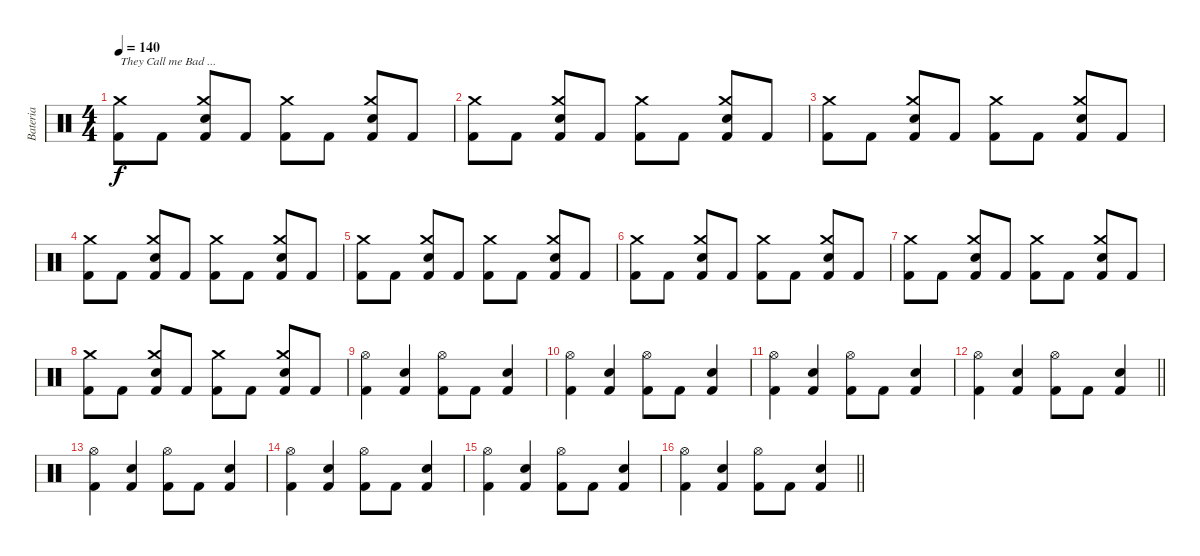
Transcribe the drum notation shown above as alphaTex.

\track ("Bateria" "Bateria") {instrument percussion}
\staff {score}
\articulation defaults
\ts (4 4)
\tempo 140
\clef neutral
\ks c
("Kick (hit) 2" "Crash medium (hit)").8{txt "They Call me Bad ..." dy f} "Kick (hit) 2".8 ("Kick (hit) 2" "Crash medium (hit)" "Electric Snare (hit)").8 "Kick (hit) 2".8 ("Kick (hit) 2" "Crash medium (hit)").8 "Kick (hit) 2".8 ("Kick (hit) 2" "Crash medium (hit)" "Electric Snare (hit)").8 "Kick (hit) 2".8 |
("Kick (hit) 2" "Crash medium (hit)").8 "Kick (hit) 2".8 ("Kick (hit) 2" "Crash medium (hit)" "Electric Snare (hit)").8 "Kick (hit) 2".8 ("Kick (hit) 2" "Crash medium (hit)").8 "Kick (hit) 2".8 ("Kick (hit) 2" "Crash medium (hit)" "Electric Snare (hit)").8 "Kick (hit) 2".8 |
("Kick (hit) 2" "Crash medium (hit)").8 "Kick (hit) 2".8 ("Kick (hit) 2" "Crash medium (hit)" "Electric Snare (hit)").8 "Kick (hit) 2".8 ("Kick (hit) 2" "Crash medium (hit)").8 "Kick (hit) 2".8 ("Kick (hit) 2" "Crash medium (hit)" "Electric Snare (hit)").8 "Kick (hit) 2".8 |
("Kick (hit) 2" "Crash medium (hit)").8 "Kick (hit) 2".8 ("Kick (hit) 2" "Crash medium (hit)" "Electric Snare (hit)").8 "Kick (hit) 2".8 ("Kick (hit) 2" "Crash medium (hit)").8 "Kick (hit) 2".8 ("Kick (hit) 2" "Crash medium (hit)" "Electric Snare (hit)").8 "Kick (hit) 2".8 |
("Kick (hit) 2" "Crash medium (hit)").8 "Kick (hit) 2".8 ("Kick (hit) 2" "Crash medium (hit)" "Electric Snare (hit)").8 "Kick (hit) 2".8 ("Kick (hit) 2" "Crash medium (hit)").8 "Kick (hit) 2".8 ("Kick (hit) 2" "Crash medium (hit)" "Electric Snare (hit)").8 "Kick (hit) 2".8 |
("Kick (hit) 2" "Crash medium (hit)").8 "Kick (hit) 2".8 ("Kick (hit) 2" "Crash medium (hit)" "Electric Snare (hit)").8 "Kick (hit) 2".8 ("Kick (hit) 2" "Crash medium (hit)").8 "Kick (hit) 2".8 ("Kick (hit) 2" "Crash medium (hit)" "Electric Snare (hit)").8 "Kick (hit) 2".8 |
("Kick (hit) 2" "Crash medium (hit)").8 "Kick (hit) 2".8 ("Kick (hit) 2" "Crash medium (hit)" "Electric Snare (hit)").8 "Kick (hit) 2".8 ("Kick (hit) 2" "Crash medium (hit)").8 "Kick (hit) 2".8 ("Kick (hit) 2" "Crash medium (hit)" "Electric Snare (hit)").8 "Kick (hit) 2".8 |
("Kick (hit) 2" "Crash medium (hit)").8 "Kick (hit) 2".8 ("Kick (hit) 2" "Crash medium (hit)" "Electric Snare (hit)").8 "Kick (hit) 2".8 ("Kick (hit) 2" "Crash medium (hit)").8 "Kick (hit) 2".8 ("Kick (hit) 2" "Crash medium (hit)" "Electric Snare (hit)").8 "Kick (hit) 2".8 |
("Kick (hit) 2" "Hi-Hat (open)").4 ("Kick (hit) 2" "Electric Snare (hit)").4 ("Kick (hit) 2" "Hi-Hat (open)").8 "Kick (hit) 2".8 ("Kick (hit) 2" "Electric Snare (hit)").4 |
("Kick (hit) 2" "Hi-Hat (open)").4 ("Kick (hit) 2" "Electric Snare (hit)").4 ("Kick (hit) 2" "Hi-Hat (open)").8 "Kick (hit) 2".8 ("Kick (hit) 2" "Electric Snare (hit)").4 |
("Kick (hit) 2" "Hi-Hat (open)").4 ("Kick (hit) 2" "Electric Snare (hit)").4 ("Kick (hit) 2" "Hi-Hat (open)").8 "Kick (hit) 2".8 ("Kick (hit) 2" "Electric Snare (hit)").4 |
\barLineRight lightlight
("Kick (hit) 2" "Hi-Hat (open)").4 ("Kick (hit) 2" "Electric Snare (hit)").4 ("Kick (hit) 2" "Hi-Hat (open)").8 "Kick (hit) 2".8 ("Kick (hit) 2" "Electric Snare (hit)").4 |
("Kick (hit) 2" "Hi-Hat (open)").4 ("Kick (hit) 2" "Electric Snare (hit)").4 ("Kick (hit) 2" "Hi-Hat (open)").8 "Kick (hit) 2".8 ("Kick (hit) 2" "Electric Snare (hit)").4 |
("Kick (hit) 2" "Hi-Hat (open)").4 ("Kick (hit) 2" "Electric Snare (hit)").4 ("Kick (hit) 2" "Hi-Hat (open)").8 "Kick (hit) 2".8 ("Kick (hit) 2" "Electric Snare (hit)").4 |
("Kick (hit) 2" "Hi-Hat (open)").4 ("Kick (hit) 2" "Electric Snare (hit)").4 ("Kick (hit) 2" "Hi-Hat (open)").8 "Kick (hit) 2".8 ("Kick (hit) 2" "Electric Snare (hit)").4 |
\barLineRight lightlight
("Kick (hit) 2" "Hi-Hat (open)").4 ("Kick (hit) 2" "Electric Snare (hit)").4 ("Kick (hit) 2" "Hi-Hat (open)").8 "Kick (hit) 2".8 ("Kick (hit) 2" "Electric Snare (hit)").4
